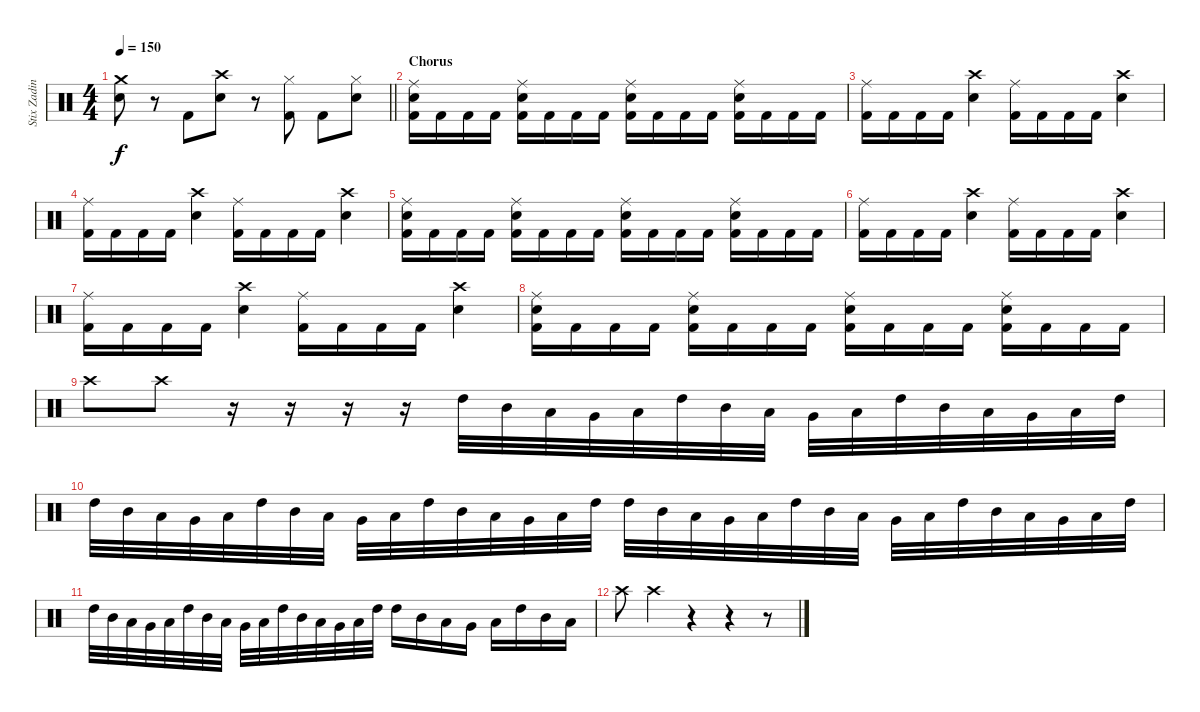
\track ("Stix Zadina" "Stix Zadin") {instrument percussion}
\staff {score}
\articulation defaults
\ts (4 4)
\tempo 150
\clef neutral
\barLineRight lightlight
\ks c
("Crash medium (hit)" "Snare (hit) 2").8{dy f} r.8 "Kick (hit) 2".8 ("Crash high (hit)" "Snare (hit) 2").8 r.8 ("Hi-Hat (closed)" "Kick (hit) 2").8 "Kick (hit) 2".8 ("Hi-Hat (closed)" "Snare (hit) 2").8 |
\section ("" "Chorus")
("Ride (middle)" "Snare (hit) 2" "Kick (hit) 2").16 "Kick (hit) 2".16 "Kick (hit) 2".16 "Kick (hit) 2".16 ("Ride (middle)" "Snare (hit) 2" "Kick (hit) 2").16 "Kick (hit) 2".16 "Kick (hit) 2".16 "Kick (hit) 2".16 ("Ride (middle)" "Snare (hit) 2" "Kick (hit) 2").16 "Kick (hit) 2".16 "Kick (hit) 2".16 "Kick (hit) 2".16 ("Ride (middle)" "Snare (hit) 2" "Kick (hit) 2").16 "Kick (hit) 2".16 "Kick (hit) 2".16 "Kick (hit) 2".16 |
("Ride (middle)" "Kick (hit) 2").16 "Kick (hit) 2".16 "Kick (hit) 2".16 "Kick (hit) 2".16 ("Crash high (hit)" "Snare (hit) 2").4 ("Ride (middle)" "Kick (hit) 2").16 "Kick (hit) 2".16 "Kick (hit) 2".16 "Kick (hit) 2".16 ("Crash high (hit)" "Snare (hit) 2").4 |
("Ride (middle)" "Kick (hit) 2").16 "Kick (hit) 2".16 "Kick (hit) 2".16 "Kick (hit) 2".16 ("Crash high (hit)" "Snare (hit) 2").4 ("Ride (middle)" "Kick (hit) 2").16 "Kick (hit) 2".16 "Kick (hit) 2".16 "Kick (hit) 2".16 ("Crash high (hit)" "Snare (hit) 2").4 |
("Ride (middle)" "Snare (hit) 2" "Kick (hit) 2").16 "Kick (hit) 2".16 "Kick (hit) 2".16 "Kick (hit) 2".16 ("Ride (middle)" "Snare (hit) 2" "Kick (hit) 2").16 "Kick (hit) 2".16 "Kick (hit) 2".16 "Kick (hit) 2".16 ("Ride (middle)" "Snare (hit) 2" "Kick (hit) 2").16 "Kick (hit) 2".16 "Kick (hit) 2".16 "Kick (hit) 2".16 ("Ride (middle)" "Snare (hit) 2" "Kick (hit) 2").16 "Kick (hit) 2".16 "Kick (hit) 2".16 "Kick (hit) 2".16 |
("Ride (middle)" "Kick (hit) 2").16 "Kick (hit) 2".16 "Kick (hit) 2".16 "Kick (hit) 2".16 ("Crash high (hit)" "Snare (hit) 2").4 ("Ride (middle)" "Kick (hit) 2").16 "Kick (hit) 2".16 "Kick (hit) 2".16 "Kick (hit) 2".16 ("Crash high (hit)" "Snare (hit) 2").4 |
("Ride (middle)" "Kick (hit) 2").16 "Kick (hit) 2".16 "Kick (hit) 2".16 "Kick (hit) 2".16 ("Crash high (hit)" "Snare (hit) 2").4 ("Ride (middle)" "Kick (hit) 2").16 "Kick (hit) 2".16 "Kick (hit) 2".16 "Kick (hit) 2".16 ("Crash high (hit)" "Snare (hit) 2").4 |
("Ride (middle)" "Snare (hit) 2" "Kick (hit) 2").16 "Kick (hit) 2".16 "Kick (hit) 2".16 "Kick (hit) 2".16 ("Ride (middle)" "Snare (hit) 2" "Kick (hit) 2").16 "Kick (hit) 2".16 "Kick (hit) 2".16 "Kick (hit) 2".16 ("Ride (middle)" "Snare (hit) 2" "Kick (hit) 2").16 "Kick (hit) 2".16 "Kick (hit) 2".16 "Kick (hit) 2".16 ("Ride (middle)" "Snare (hit) 2" "Kick (hit) 2").16 "Kick (hit) 2".16 "Kick (hit) 2".16 "Kick (hit) 2".16 |
"Crash high (hit)".8 "Crash high (hit)".8 r.16 r.16 r.16 r.16 "High Tom (hit)".32 "Mid Tom (hit)".32 "Low Tom (hit)".32 "Very Low Tom (hit)".32 "Low Floor Tom (hit)".32 "High Tom (hit)".32 "Mid Tom (hit)".32 "Low Tom (hit)".32 "Very Low Tom (hit)".32 "Low Floor Tom (hit)".32 "High Tom (hit)".32 "Mid Tom (hit)".32 "Low Tom (hit)".32 "Very Low Tom (hit)".32 "Low Floor Tom (hit)".32 "High Tom (hit)".32 |
"High Tom (hit)".32 "Mid Tom (hit)".32 "Low Tom (hit)".32 "Very Low Tom (hit)".32 "Low Floor Tom (hit)".32 "High Tom (hit)".32 "Mid Tom (hit)".32 "Low Tom (hit)".32 "Very Low Tom (hit)".32 "Low Floor Tom (hit)".32 "High Tom (hit)".32 "Mid Tom (hit)".32 "Low Tom (hit)".32 "Very Low Tom (hit)".32 "Low Floor Tom (hit)".32 "High Tom (hit)".32 "High Tom (hit)".32 "Mid Tom (hit)".32 "Low Tom (hit)".32 "Very Low Tom (hit)".32 "Low Floor Tom (hit)".32 "High Tom (hit)".32 "Mid Tom (hit)".32 "Low Tom (hit)".32 "Very Low Tom (hit)".32 "Low Floor Tom (hit)".32 "High Tom (hit)".32 "Mid Tom (hit)".32 "Low Tom (hit)".32 "Very Low Tom (hit)".32 "Low Floor Tom (hit)".32 "High Tom (hit)".32 |
"High Tom (hit)".32 "Mid Tom (hit)".32 "Low Tom (hit)".32 "Very Low Tom (hit)".32 "Low Floor Tom (hit)".32 "High Tom (hit)".32 "Mid Tom (hit)".32 "Low Tom (hit)".32 "Very Low Tom (hit)".32 "Low Floor Tom (hit)".32 "High Tom (hit)".32 "Mid Tom (hit)".32 "Low Tom (hit)".32 "Very Low Tom (hit)".32 "Low Floor Tom (hit)".32 "High Tom (hit)".32 "High Tom (hit)".16 "Mid Tom (hit)".16 "Low Tom (hit)".16 "Very Low Tom (hit)".16 "Low Floor Tom (hit)".16 "High Tom (hit)".16 "Mid Tom (hit)".16 "Low Tom (hit)".16 |
"Crash high (hit)".8 "Crash high (hit)".4 r.4 r.4 r.8
